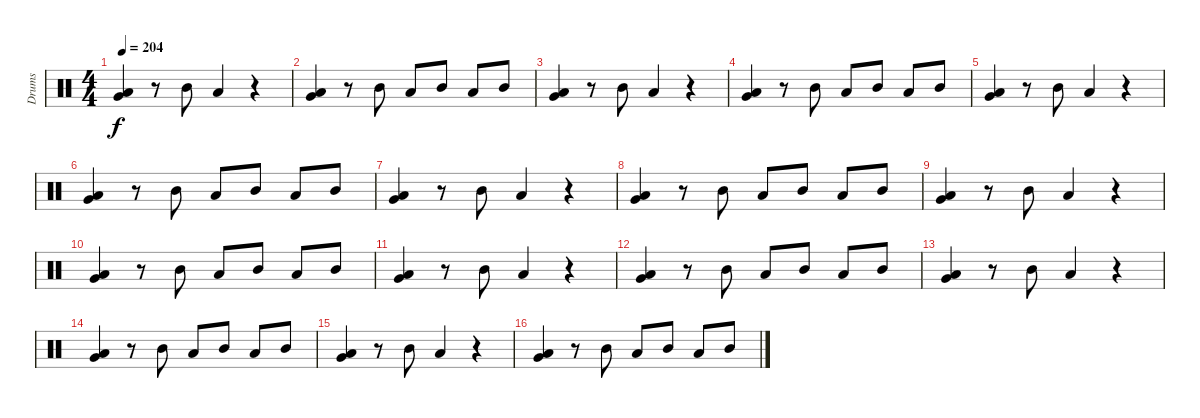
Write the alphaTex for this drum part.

\track ("Drums" "Drums") {instrument percussion}
\staff {score}
\articulation defaults
\ts (4 4)
\tempo 204
\clef neutral
\ks c
("Low Tom (hit)" "Very Low Tom (hit)").4{dy f} r.8 "Mid Tom (hit)".8 "Low Tom (hit)".4 r.4 |
("Low Tom (hit)" "Very Low Tom (hit)").4 r.8 "Mid Tom (hit)".8 "Low Tom (hit)".8 "Mid Tom (hit)".8 "Low Tom (hit)".8 "Mid Tom (hit)".8 |
("Low Tom (hit)" "Very Low Tom (hit)").4 r.8 "Mid Tom (hit)".8 "Low Tom (hit)".4 r.4 |
("Very Low Tom (hit)" "Low Tom (hit)").4 r.8 "Mid Tom (hit)".8 "Low Tom (hit)".8 "Mid Tom (hit)".8 "Low Tom (hit)".8 "Mid Tom (hit)".8 |
("Low Tom (hit)" "Very Low Tom (hit)").4 r.8 "Mid Tom (hit)".8 "Low Tom (hit)".4 r.4 |
("Low Tom (hit)" "Very Low Tom (hit)").4 r.8 "Mid Tom (hit)".8 "Low Tom (hit)".8 "Mid Tom (hit)".8 "Low Tom (hit)".8 "Mid Tom (hit)".8 |
("Very Low Tom (hit)" "Low Tom (hit)").4 r.8 "Mid Tom (hit)".8 "Low Tom (hit)".4 r.4 |
("Very Low Tom (hit)" "Low Tom (hit)").4 r.8 "Mid Tom (hit)".8 "Low Tom (hit)".8 "Mid Tom (hit)".8 "Low Tom (hit)".8 "Mid Tom (hit)".8 |
("Low Tom (hit)" "Very Low Tom (hit)").4 r.8 "Mid Tom (hit)".8 "Low Tom (hit)".4 r.4 |
("Low Tom (hit)" "Very Low Tom (hit)").4 r.8 "Mid Tom (hit)".8 "Low Tom (hit)".8 "Mid Tom (hit)".8 "Low Tom (hit)".8 "Mid Tom (hit)".8 |
("Low Tom (hit)" "Very Low Tom (hit)").4 r.8 "Mid Tom (hit)".8 "Low Tom (hit)".4 r.4 |
("Very Low Tom (hit)" "Low Tom (hit)").4 r.8 "Mid Tom (hit)".8 "Low Tom (hit)".8 "Mid Tom (hit)".8 "Low Tom (hit)".8 "Mid Tom (hit)".8 |
("Low Tom (hit)" "Very Low Tom (hit)").4 r.8 "Mid Tom (hit)".8 "Low Tom (hit)".4 r.4 |
("Low Tom (hit)" "Very Low Tom (hit)").4 r.8 "Mid Tom (hit)".8 "Low Tom (hit)".8 "Mid Tom (hit)".8 "Low Tom (hit)".8 "Mid Tom (hit)".8 |
("Very Low Tom (hit)" "Low Tom (hit)").4 r.8 "Mid Tom (hit)".8 "Low Tom (hit)".4 r.4 |
("Low Tom (hit)" "Very Low Tom (hit)").4 r.8 "Mid Tom (hit)".8 "Low Tom (hit)".8 "Mid Tom (hit)".8 "Low Tom (hit)".8 "Mid Tom (hit)".8
